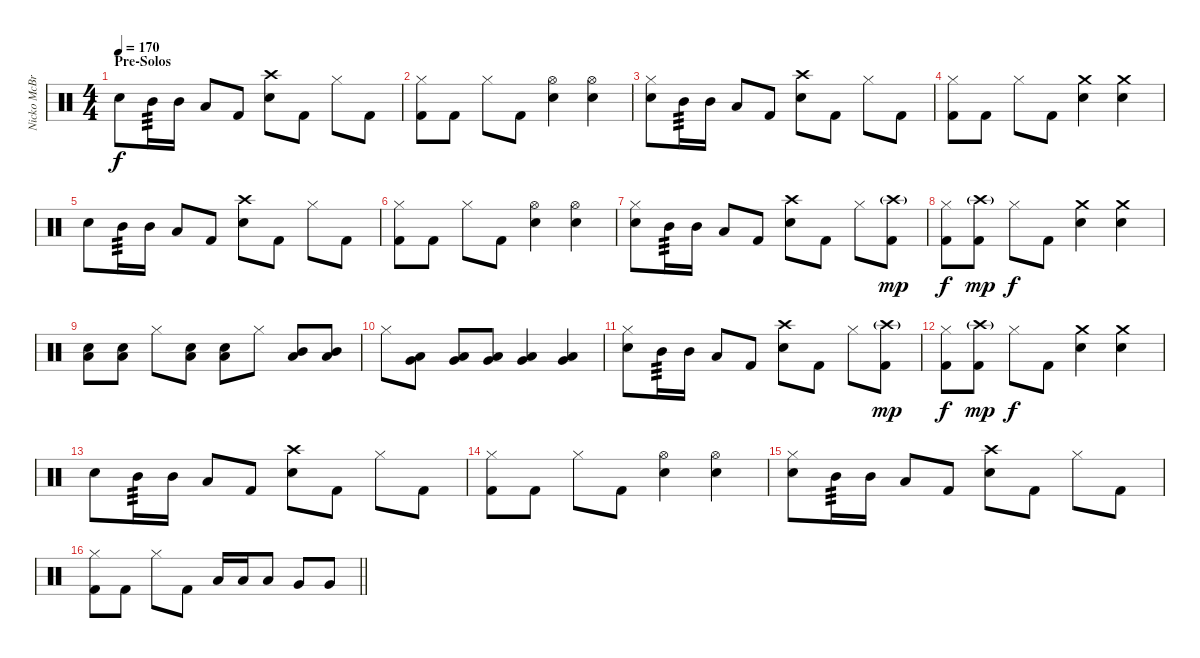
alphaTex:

\track ("Nicko McBrain" "Nicko McBr") {instrument percussion}
\staff {score}
\articulation defaults
\ts (4 4)
\section ("" "Pre-Solos")
\tempo 170
\clef neutral
\ks c "Electric Snare (hit)".8{dy f} "Mid Tom (hit)".16{tp 3} "Mid Tom (hit)".16 "Low Tom (hit)".8 "Kick (hit) 2".8
("Crash high (hit)" "Electric Snare (hit)").8 "Kick (hit) 2".8 "Hi-Hat (closed)".8 "Kick (hit) 2".8 |
("Hi-Hat (closed)" "Kick (hit) 2").8 "Kick (hit) 2".8 "Hi-Hat (closed)".8 "Kick (hit) 2".8 ("Hi-Hat (open)" "Electric Snare (hit)").4 ("Hi-Hat (open)" "Electric Snare (hit)").4 |
("Hi-Hat (closed)" "Electric Snare (hit)").8 "Mid Tom (hit)".16{tp 3} "Mid Tom (hit)".16 "Low Tom (hit)".8 "Kick (hit) 2".8 ("Crash high (hit)" "Electric Snare (hit)").8 "Kick (hit) 2".8 "Hi-Hat (closed)".8 "Kick (hit) 2".8 |
("Hi-Hat (closed)" "Kick (hit) 2").8 "Kick (hit) 2".8 "Hi-Hat (closed)".8 "Kick (hit) 2".8 ("Crash medium (hit)" "Electric Snare (hit)").4 ("Crash medium (hit)" "Electric Snare (hit)").4 |
"Electric Snare (hit)".8 "Mid Tom (hit)".16{tp 3} "Mid Tom (hit)".16 "Low Tom (hit)".8 "Kick (hit) 2".8 ("Crash high (hit)" "Electric Snare (hit)").8 "Kick (hit) 2".8 "Hi-Hat (closed)".8 "Kick (hit) 2".8 |
("Hi-Hat (closed)" "Kick (hit) 2").8 "Kick (hit) 2".8 "Hi-Hat (closed)".8 "Kick (hit) 2".8 ("Hi-Hat (open)" "Electric Snare (hit)").4 ("Hi-Hat (open)" "Electric Snare (hit)").4 |
("Hi-Hat (closed)" "Electric Snare (hit)").8 "Mid Tom (hit)".16{tp 3} "Mid Tom (hit)".16 "Low Tom (hit)".8 "Kick (hit) 2".8 ("Crash high (hit)" "Electric Snare (hit)").8 "Kick (hit) 2".8 "Hi-Hat (closed)".8 ("Crash high (hit)"{g} "Kick (hit) 2").8{dy mp} |
("Hi-Hat (closed)" "Kick (hit) 2").8{dy f} ("Crash high (hit)"{g} "Kick (hit) 2").8{dy mp} "Hi-Hat (closed)".8{dy f} "Kick (hit) 2".8 ("Crash medium (hit)" "Electric Snare (hit)").4 ("Crash medium (hit)" "Electric Snare (hit)").4 |
("Low Tom (hit)" "Electric Snare (hit)").8 ("Low Tom (hit)" "Electric Snare (hit)").8 "Hi-Hat (closed)".8 ("Low Tom (hit)" "Electric Snare (hit)").8 ("Low Tom (hit)" "Electric Snare (hit)").8 "Hi-Hat (closed)".8 ("Mid Tom (hit)" "Low Tom (hit)").8 ("Mid Tom (hit)" "Low Tom (hit)").8 |
"Hi-Hat (closed)".8 ("Low Tom (hit)" "Very Low Tom (hit)").8 ("Low Tom (hit)" "Very Low Tom (hit)").8 ("Low Tom (hit)" "Very Low Tom (hit)").8 ("Very Low Tom (hit)" "Low Floor Tom (hit)").4 ("Very Low Tom (hit)" "Low Floor Tom (hit)").4 |
("Hi-Hat (closed)" "Electric Snare (hit)").8 "Mid Tom (hit)".16{tp 3} "Mid Tom (hit)".16 "Low Tom (hit)".8 "Kick (hit) 2".8 ("Crash high (hit)" "Electric Snare (hit)").8 "Kick (hit) 2".8 "Hi-Hat (closed)".8 ("Crash high (hit)"{g} "Kick (hit) 2").8{dy mp} |
("Hi-Hat (closed)" "Kick (hit) 2").8{dy f} ("Crash high (hit)"{g} "Kick (hit) 2").8{dy mp} "Hi-Hat (closed)".8{dy f} "Kick (hit) 2".8 ("Crash medium (hit)" "Electric Snare (hit)").4 ("Crash medium (hit)" "Electric Snare (hit)").4 |
"Electric Snare (hit)".8 "Mid Tom (hit)".16{tp 3} "Mid Tom (hit)".16 "Low Tom (hit)".8 "Kick (hit) 2".8 ("Crash high (hit)" "Electric Snare (hit)").8 "Kick (hit) 2".8 "Hi-Hat (closed)".8 "Kick (hit) 2".8 |
("Hi-Hat (closed)" "Kick (hit) 2").8 "Kick (hit) 2".8 "Hi-Hat (closed)".8 "Kick (hit) 2".8 ("Hi-Hat (open)" "Electric Snare (hit)").4 ("Hi-Hat (open)" "Electric Snare (hit)").4 |
("Hi-Hat (closed)" "Electric Snare (hit)").8 "Mid Tom (hit)".16{tp 3} "Mid Tom (hit)".16 "Low Tom (hit)".8 "Kick (hit) 2".8 ("Crash high (hit)" "Electric Snare (hit)").8 "Kick (hit) 2".8 "Hi-Hat (closed)".8 "Kick (hit) 2".8 |
\barLineRight lightlight
("Hi-Hat (closed)" "Kick (hit) 2").8 "Kick (hit) 2".8 "Hi-Hat (closed)".8 "Kick (hit) 2".8 "Low Tom (hit)".16 "Low Tom (hit)".16 "Low Tom (hit)".8 "Very Low Tom (hit)".8 "Very Low Tom (hit)".8
